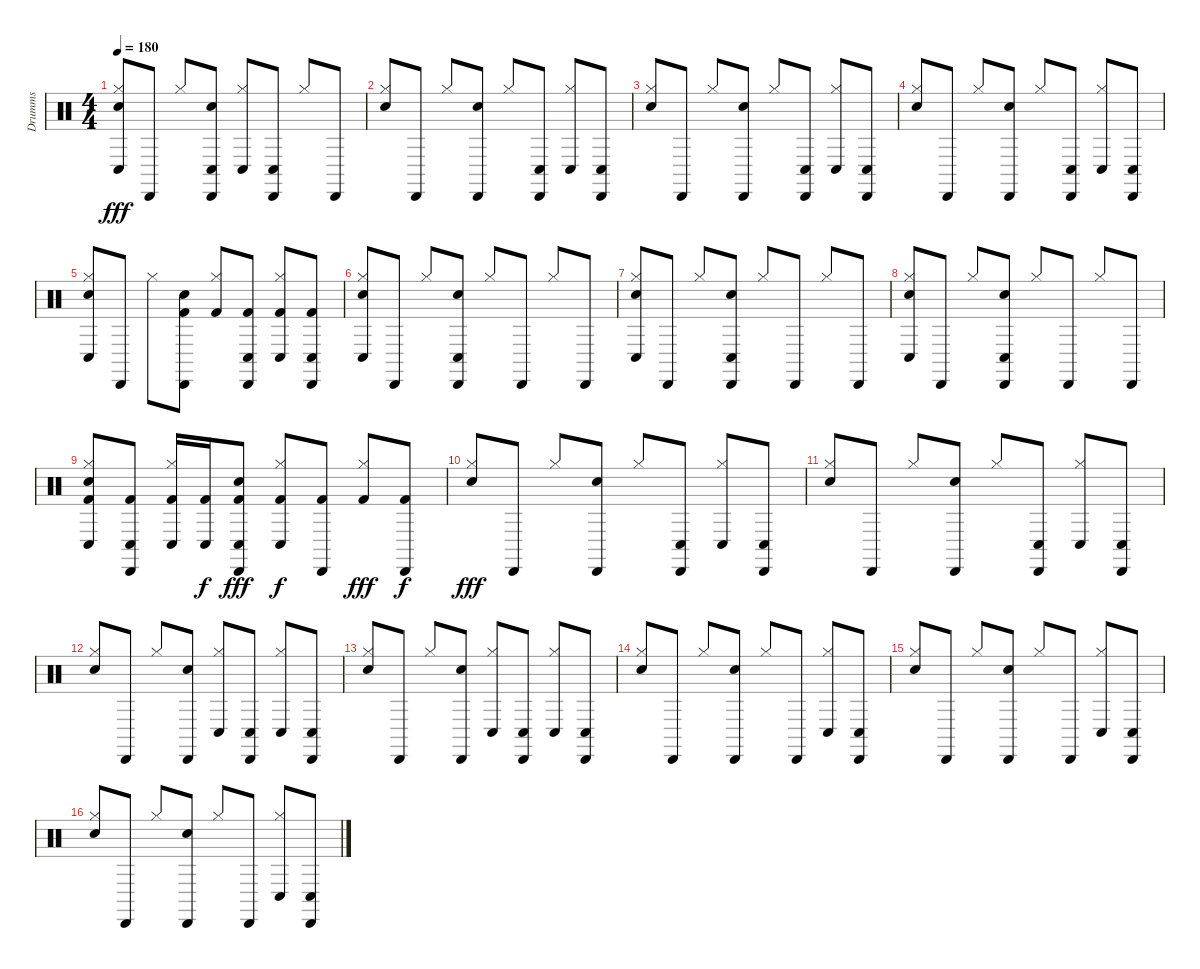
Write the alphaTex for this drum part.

\track ("Drumms" "Drumms") {instrument percussion}
\staff {score}
\articulation defaults
\ts (4 4)
\tempo 180
\clef neutral
\ks c
("Hi-Hat (closed)" "Metronome (bell)" "Conga low (hit)").8{dy fff} "Cabasa (hit)".8 "Hi-Hat (closed)".8 ("Cabasa (hit)" "Metronome (bell)" "Conga low (hit)").8 ("Hi-Hat (closed)" "Conga low (hit)").8 ("Cabasa (hit)" "Conga low (hit)").8 "Hi-Hat (closed)".8 "Cabasa (hit)".8 |
("Hi-Hat (closed)" "Metronome (bell)").8 "Cabasa (hit)".8 "Hi-Hat (closed)".8 ("Cabasa (hit)" "Metronome (bell)").8 "Hi-Hat (closed)".8 ("Cabasa (hit)" "Conga low (hit)").8 ("Hi-Hat (closed)" "Conga low (hit)").8 ("Cabasa (hit)" "Conga low (hit)").8 |
("Hi-Hat (closed)" "Metronome (bell)").8 "Cabasa (hit)".8 "Hi-Hat (closed)".8 ("Cabasa (hit)" "Metronome (bell)").8 "Hi-Hat (closed)".8 ("Cabasa (hit)" "Conga low (hit)").8 ("Hi-Hat (closed)" "Conga low (hit)").8 ("Cabasa (hit)" "Conga low (hit)").8 |
("Hi-Hat (closed)" "Metronome (bell)").8 "Cabasa (hit)".8 "Hi-Hat (closed)".8 ("Cabasa (hit)" "Metronome (bell)").8 "Hi-Hat (closed)".8 ("Cabasa (hit)" "Conga low (hit)").8 ("Hi-Hat (closed)" "Conga low (hit)").8 ("Cabasa (hit)" "Conga low (hit)").8 |
("Hi-Hat (closed)" "Metronome (bell)" "Conga low (hit)").8 "Cabasa (hit)".8 "Hi-Hat (closed)".8 ("Cabasa (hit)" "Metronome (bell)" "Kick (hit) 2").8 ("Hi-Hat (closed)" "Kick (hit) 2").8 ("Cabasa (hit)" "Conga low (hit)" "Kick (hit) 2").8 ("Hi-Hat (closed)" "Conga low (hit)" "Kick (hit) 2").8 ("Cabasa (hit)" "Conga low (hit)" "Kick (hit) 2").8 |
("Hi-Hat (closed)" "Metronome (bell)" "Conga low (hit)").8 "Cabasa (hit)".8 "Hi-Hat (closed)".8 ("Cabasa (hit)" "Metronome (bell)" "Conga low (hit)").8 "Hi-Hat (closed)".8 "Cabasa (hit)".8 "Hi-Hat (closed)".8 "Cabasa (hit)".8 |
("Hi-Hat (closed)" "Metronome (bell)" "Conga low (hit)").8 "Cabasa (hit)".8 "Hi-Hat (closed)".8 ("Cabasa (hit)" "Metronome (bell)" "Conga low (hit)").8 "Hi-Hat (closed)".8 "Cabasa (hit)".8 "Hi-Hat (closed)".8 "Cabasa (hit)".8 |
("Hi-Hat (closed)" "Metronome (bell)" "Conga low (hit)").8 "Cabasa (hit)".8 "Hi-Hat (closed)".8 ("Cabasa (hit)" "Metronome (bell)" "Conga low (hit)").8 "Hi-Hat (closed)".8 "Cabasa (hit)".8 "Hi-Hat (closed)".8 "Cabasa (hit)".8 |
("Hi-Hat (closed)" "Metronome (bell)" "Conga low (hit)" "Kick (hit) 2").8 ("Cabasa (hit)" "Conga low (hit)" "Kick (hit) 2").8 ("Hi-Hat (closed)" "Conga low (hit)" "Kick (hit) 2").16 ("Conga low (hit)" "Kick (hit) 2").16{dy f} ("Cabasa (hit)" "Metronome (bell)" "Conga low (hit)" "Kick (hit) 2").8{dy fff} ("Hi-Hat (closed)" "Conga low (hit)" "Kick (hit) 2").8{dy f} ("Cabasa (hit)" "Kick (hit) 2").8 ("Hi-Hat (closed)" "Kick (hit) 2").8{dy fff} ("Cabasa (hit)" "Kick (hit) 2").8{dy f} |
("Hi-Hat (closed)" "Metronome (bell)").8{dy fff} "Cabasa (hit)".8 "Hi-Hat (closed)".8 ("Cabasa (hit)" "Metronome (bell)").8 "Hi-Hat (closed)".8 ("Cabasa (hit)" "Conga low (hit)").8 ("Hi-Hat (closed)" "Conga low (hit)").8 ("Cabasa (hit)" "Conga low (hit)").8 |
("Hi-Hat (closed)" "Metronome (bell)").8 "Cabasa (hit)".8 "Hi-Hat (closed)".8 ("Cabasa (hit)" "Metronome (bell)").8 "Hi-Hat (closed)".8 ("Cabasa (hit)" "Conga low (hit)").8 ("Hi-Hat (closed)" "Conga low (hit)").8 ("Cabasa (hit)" "Conga low (hit)").8 |
("Hi-Hat (closed)" "Metronome (bell)").8 "Cabasa (hit)".8 "Hi-Hat (closed)".8 ("Cabasa (hit)" "Metronome (bell)").8 ("Hi-Hat (closed)" "Conga low (hit)").8 ("Cabasa (hit)" "Conga low (hit)").8 ("Hi-Hat (closed)" "Conga low (hit)").8 ("Cabasa (hit)" "Conga low (hit)").8 |
("Hi-Hat (closed)" "Metronome (bell)").8 "Cabasa (hit)".8 "Hi-Hat (closed)".8 ("Cabasa (hit)" "Metronome (bell)").8 ("Hi-Hat (closed)" "Conga low (hit)").8 ("Cabasa (hit)" "Conga low (hit)").8 ("Hi-Hat (closed)" "Conga low (hit)").8 ("Cabasa (hit)" "Conga low (hit)").8 |
("Hi-Hat (closed)" "Metronome (bell)").8 "Cabasa (hit)".8 "Hi-Hat (closed)".8 ("Cabasa (hit)" "Metronome (bell)").8 "Hi-Hat (closed)".8 "Cabasa (hit)".8 ("Hi-Hat (closed)" "Conga low (hit)").8 ("Cabasa (hit)" "Conga low (hit)").8 |
("Hi-Hat (closed)" "Metronome (bell)").8 "Cabasa (hit)".8 "Hi-Hat (closed)".8 ("Cabasa (hit)" "Metronome (bell)").8 "Hi-Hat (closed)".8 "Cabasa (hit)".8 ("Hi-Hat (closed)" "Conga low (hit)").8 ("Cabasa (hit)" "Conga low (hit)").8 |
("Hi-Hat (closed)" "Metronome (bell)").8 "Cabasa (hit)".8 "Hi-Hat (closed)".8 ("Cabasa (hit)" "Metronome (bell)").8 "Hi-Hat (closed)".8 "Cabasa (hit)".8 ("Hi-Hat (closed)" "Conga low (hit)").8 ("Cabasa (hit)" "Conga low (hit)").8
